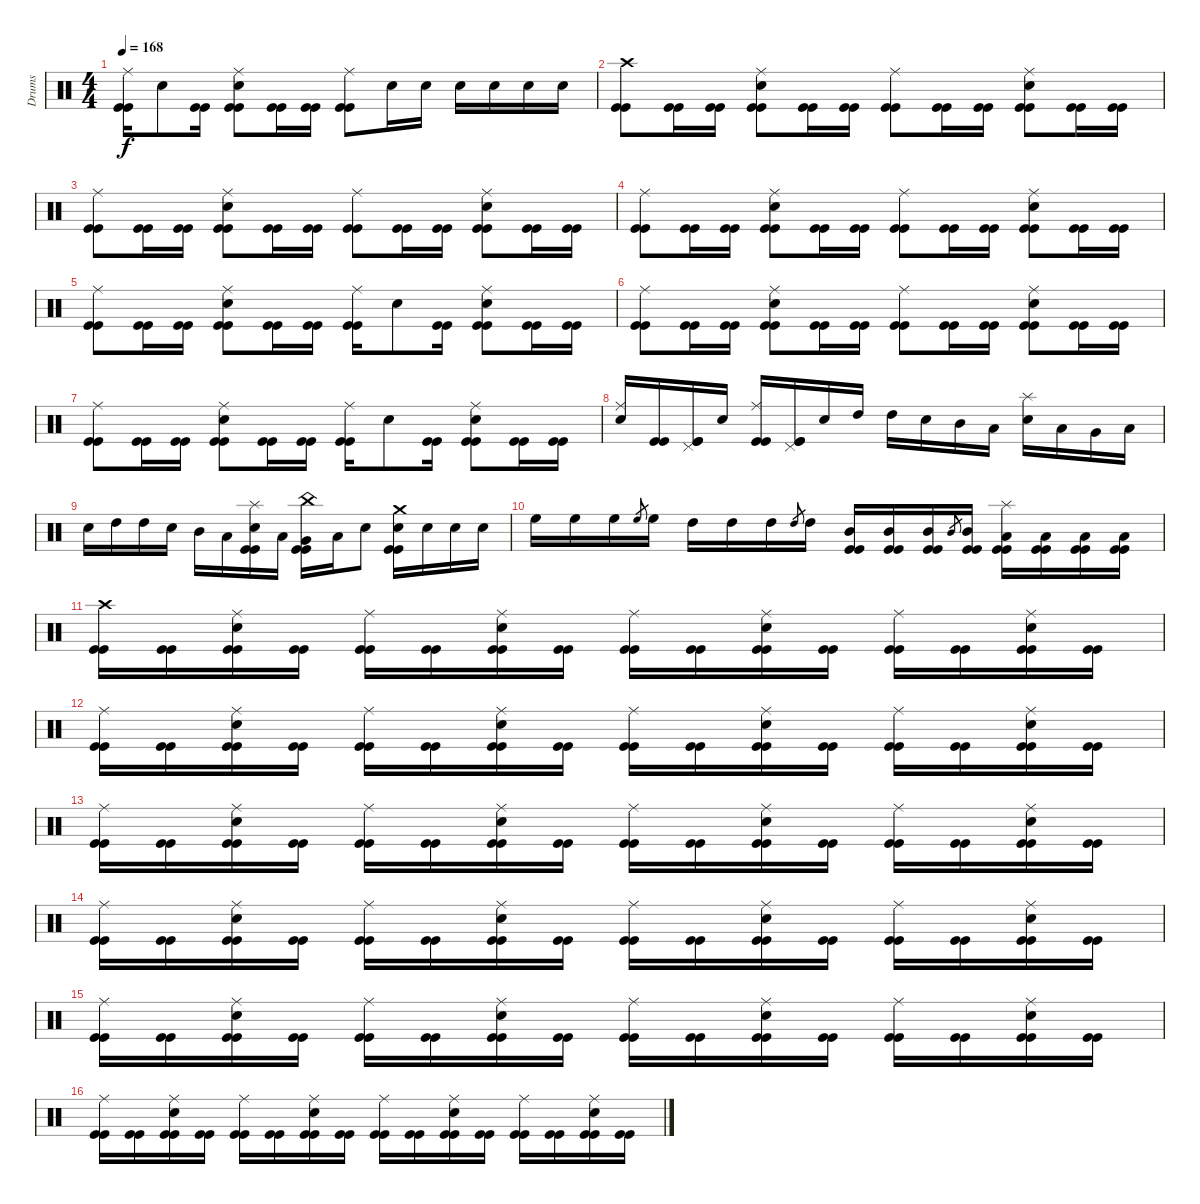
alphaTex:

\track ("Drums" "Drums") {instrument percussion}
\staff {score}
\articulation defaults
\ts (4 4)
\tempo 168
\clef neutral
\ks c
("Ride (middle)" "Kick (hit)" "Kick (hit)").16{dy f} "Electric Snare (hit)".8 ("Kick (hit)" "Kick (hit)").16 ("Ride (middle)" "Electric Snare (hit)" "Kick (hit)" "Kick (hit)").8 ("Kick (hit)" "Kick (hit)").16 ("Kick (hit)" "Kick (hit)").16 ("Ride (middle)" "Kick (hit)" "Kick (hit)").8 "Electric Snare (hit)".16 "Electric Snare (hit)".16 "Electric Snare (hit)".16 "Electric Snare (hit)".16 "Electric Snare (hit)".16 "Electric Snare (hit)".16 |
("Crash high (hit)" "Kick (hit)" "Kick (hit)").8 ("Kick (hit)" "Kick (hit)").16 ("Kick (hit)" "Kick (hit)").16 ("Ride (middle)" "Electric Snare (hit)" "Kick (hit)" "Kick (hit)").8 ("Kick (hit)" "Kick (hit)").16 ("Kick (hit)" "Kick (hit)").16 ("Ride (middle)" "Kick (hit)" "Kick (hit)").8 ("Kick (hit)" "Kick (hit)").16 ("Kick (hit)" "Kick (hit)").16 ("Ride (middle)" "Electric Snare (hit)" "Kick (hit)" "Kick (hit)").8 ("Kick (hit)" "Kick (hit)").16 ("Kick (hit)" "Kick (hit)").16 |
("Ride (middle)" "Kick (hit)" "Kick (hit)").8 ("Kick (hit)" "Kick (hit)").16 ("Kick (hit)" "Kick (hit)").16 ("Ride (middle)" "Electric Snare (hit)" "Kick (hit)" "Kick (hit)").8 ("Kick (hit)" "Kick (hit)").16 ("Kick (hit)" "Kick (hit)").16 ("Ride (middle)" "Kick (hit)" "Kick (hit)").8 ("Kick (hit)" "Kick (hit)").16 ("Kick (hit)" "Kick (hit)").16 ("Ride (middle)" "Electric Snare (hit)" "Kick (hit)" "Kick (hit)").8 ("Kick (hit)" "Kick (hit)").16 ("Kick (hit)" "Kick (hit)").16 |
("Ride (middle)" "Kick (hit)" "Kick (hit)").8 ("Kick (hit)" "Kick (hit)").16 ("Kick (hit)" "Kick (hit)").16 ("Ride (middle)" "Electric Snare (hit)" "Kick (hit)" "Kick (hit)").8 ("Kick (hit)" "Kick (hit)").16 ("Kick (hit)" "Kick (hit)").16 ("Ride (middle)" "Kick (hit)" "Kick (hit)").8 ("Kick (hit)" "Kick (hit)").16 ("Kick (hit)" "Kick (hit)").16 ("Ride (middle)" "Electric Snare (hit)" "Kick (hit)" "Kick (hit)").8 ("Kick (hit)" "Kick (hit)").16 ("Kick (hit)" "Kick (hit)").16 |
("Ride (middle)" "Kick (hit)" "Kick (hit)").8 ("Kick (hit)" "Kick (hit)").16 ("Kick (hit)" "Kick (hit)").16 ("Ride (middle)" "Electric Snare (hit)" "Kick (hit)" "Kick (hit)").8 ("Kick (hit)" "Kick (hit)").16 ("Kick (hit)" "Kick (hit)").16 ("Ride (middle)" "Kick (hit)" "Kick (hit)").16 "Electric Snare (hit)".8 ("Kick (hit)" "Kick (hit)").16 ("Ride (middle)" "Electric Snare (hit)" "Kick (hit)" "Kick (hit)").8 ("Kick (hit)" "Kick (hit)").16 ("Kick (hit)" "Kick (hit)").16 |
("Ride (middle)" "Kick (hit)" "Kick (hit)").8 ("Kick (hit)" "Kick (hit)").16 ("Kick (hit)" "Kick (hit)").16 ("Ride (middle)" "Electric Snare (hit)" "Kick (hit)" "Kick (hit)").8 ("Kick (hit)" "Kick (hit)").16 ("Kick (hit)" "Kick (hit)").16 ("Ride (middle)" "Kick (hit)" "Kick (hit)").8 ("Kick (hit)" "Kick (hit)").16 ("Kick (hit)" "Kick (hit)").16 ("Ride (middle)" "Electric Snare (hit)" "Kick (hit)" "Kick (hit)").8 ("Kick (hit)" "Kick (hit)").16 ("Kick (hit)" "Kick (hit)").16 |
("Ride (middle)" "Kick (hit)" "Kick (hit)").8 ("Kick (hit)" "Kick (hit)").16 ("Kick (hit)" "Kick (hit)").16 ("Ride (middle)" "Electric Snare (hit)" "Kick (hit)" "Kick (hit)").8 ("Kick (hit)" "Kick (hit)").16 ("Kick (hit)" "Kick (hit)").16 ("Ride (middle)" "Kick (hit)" "Kick (hit)").16 "Electric Snare (hit)".8 ("Kick (hit)" "Kick (hit)").16 ("Ride (middle)" "Electric Snare (hit)" "Kick (hit)" "Kick (hit)").8 ("Kick (hit)" "Kick (hit)").16 ("Kick (hit)" "Kick (hit)").16 |
("Ride (middle)" "Electric Snare (hit)").16 ("Kick (hit)" "Kick (hit)").16 ("Pedal Hi-Hat (hit)" "Kick (hit)" "Kick (hit)").16 "Electric Snare (hit)".16 ("Ride (middle)" "Kick (hit)" "Kick (hit)").16 ("Pedal Hi-Hat (hit)" "Kick (hit)" "Kick (hit)").16 "Electric Snare (hit)".16 "High Tom (hit)".16 "High Tom (hit)".16 "Electric Snare (hit)".16 "Mid Tom (hit)".16 "Low Tom (hit)".16 ("Splash (hit)" "Electric Snare (hit)").16 "Low Tom (hit)".16 "Very Low Tom (hit)".16 "Low Floor Tom (hit)".16 |
"Electric Snare (hit)".16 "High Tom (hit)".16 "High Tom (hit)".16 "Electric Snare (hit)".16 "Mid Tom (hit)".16 "Low Tom (hit)".16 ("Splash (hit)" "Electric Snare (hit)" "Kick (hit)" "Kick (hit)").16 "Low Tom (hit)".16 ("China (hit)" "Very Low Tom (hit)" "Kick (hit)" "Kick (hit)").16 "Low Floor Tom (hit)".16 "Electric Snare (hit)".8 ("Crash medium (hit)" "Electric Snare (hit)" "Kick (hit)" "Kick (hit)").16 "Electric Snare (hit)".16 "Electric Snare (hit)".16 "Electric Snare (hit)".16 |
"High Floor Tom (hit)".16 "High Floor Tom (hit)".16 "High Floor Tom (hit)".16 "High Floor Tom (hit)".8{gr} "High Floor Tom (hit)".16 "High Tom (hit)".16 "High Tom (hit)".16 "High Tom (hit)".16 "High Tom (hit)".8{gr} "High Tom (hit)".16 ("Mid Tom (hit)" "Kick (hit)" "Kick (hit)").16 ("Mid Tom (hit)" "Kick (hit)" "Kick (hit)").16 ("Mid Tom (hit)" "Kick (hit)" "Kick (hit)").16 "Mid Tom (hit)".8{gr} ("Mid Tom (hit)" "Kick (hit)" "Kick (hit)").16 ("Splash (hit)" "Low Tom (hit)" "Kick (hit)" "Kick (hit)").16 ("Low Tom (hit)" "Kick (hit)" "Kick (hit)").16 ("Low Tom (hit)" "Kick (hit)" "Kick (hit)").16 ("Low Tom (hit)" "Kick (hit)" "Kick (hit)").16 |
("Crash high (hit)" "Kick (hit)" "Kick (hit)").16 ("Kick (hit)" "Kick (hit)").16 ("Ride (middle)" "Electric Snare (hit)" "Kick (hit)" "Kick (hit)").16 ("Kick (hit)" "Kick (hit)").16 ("Ride (middle)" "Kick (hit)" "Kick (hit)").16 ("Kick (hit)" "Kick (hit)").16 ("Ride (middle)" "Electric Snare (hit)" "Kick (hit)" "Kick (hit)").16 ("Kick (hit)" "Kick (hit)").16 ("Ride (middle)" "Kick (hit)" "Kick (hit)").16 ("Kick (hit)" "Kick (hit)").16 ("Ride (middle)" "Electric Snare (hit)" "Kick (hit)" "Kick (hit)").16 ("Kick (hit)" "Kick (hit)").16 ("Ride (middle)" "Kick (hit)" "Kick (hit)").16 ("Kick (hit)" "Kick (hit)").16 ("Ride (middle)" "Electric Snare (hit)" "Kick (hit)" "Kick (hit)").16 ("Kick (hit)" "Kick (hit)").16 |
("Ride (middle)" "Kick (hit)" "Kick (hit)").16 ("Kick (hit)" "Kick (hit)").16 ("Ride (middle)" "Electric Snare (hit)" "Kick (hit)" "Kick (hit)").16 ("Kick (hit)" "Kick (hit)").16 ("Ride (middle)" "Kick (hit)" "Kick (hit)").16 ("Kick (hit)" "Kick (hit)").16 ("Ride (middle)" "Electric Snare (hit)" "Kick (hit)" "Kick (hit)").16 ("Kick (hit)" "Kick (hit)").16 ("Ride (middle)" "Kick (hit)" "Kick (hit)").16 ("Kick (hit)" "Kick (hit)").16 ("Ride (middle)" "Electric Snare (hit)" "Kick (hit)" "Kick (hit)").16 ("Kick (hit)" "Kick (hit)").16 ("Ride (middle)" "Kick (hit)" "Kick (hit)").16 ("Kick (hit)" "Kick (hit)").16 ("Ride (middle)" "Electric Snare (hit)" "Kick (hit)" "Kick (hit)").16 ("Kick (hit)" "Kick (hit)").16 |
("Ride (middle)" "Kick (hit)" "Kick (hit)").16 ("Kick (hit)" "Kick (hit)").16 ("Ride (middle)" "Electric Snare (hit)" "Kick (hit)" "Kick (hit)").16 ("Kick (hit)" "Kick (hit)").16 ("Ride (middle)" "Kick (hit)" "Kick (hit)").16 ("Kick (hit)" "Kick (hit)").16 ("Ride (middle)" "Electric Snare (hit)" "Kick (hit)" "Kick (hit)").16 ("Kick (hit)" "Kick (hit)").16 ("Ride (middle)" "Kick (hit)" "Kick (hit)").16 ("Kick (hit)" "Kick (hit)").16 ("Ride (middle)" "Electric Snare (hit)" "Kick (hit)" "Kick (hit)").16 ("Kick (hit)" "Kick (hit)").16 ("Ride (middle)" "Kick (hit)" "Kick (hit)").16 ("Kick (hit)" "Kick (hit)").16 ("Ride (middle)" "Electric Snare (hit)" "Kick (hit)" "Kick (hit)").16 ("Kick (hit)" "Kick (hit)").16 |
("Ride (middle)" "Kick (hit)" "Kick (hit)").16 ("Kick (hit)" "Kick (hit)").16 ("Ride (middle)" "Electric Snare (hit)" "Kick (hit)" "Kick (hit)").16 ("Kick (hit)" "Kick (hit)").16 ("Ride (middle)" "Kick (hit)" "Kick (hit)").16 ("Kick (hit)" "Kick (hit)").16 ("Ride (middle)" "Electric Snare (hit)" "Kick (hit)" "Kick (hit)").16 ("Kick (hit)" "Kick (hit)").16 ("Ride (middle)" "Kick (hit)" "Kick (hit)").16 ("Kick (hit)" "Kick (hit)").16 ("Ride (middle)" "Electric Snare (hit)" "Kick (hit)" "Kick (hit)").16 ("Kick (hit)" "Kick (hit)").16 ("Ride (middle)" "Kick (hit)" "Kick (hit)").16 ("Kick (hit)" "Kick (hit)").16 ("Ride (middle)" "Electric Snare (hit)" "Kick (hit)" "Kick (hit)").16 ("Kick (hit)" "Kick (hit)").16 |
("Ride (middle)" "Kick (hit)" "Kick (hit)").16 ("Kick (hit)" "Kick (hit)").16 ("Ride (middle)" "Electric Snare (hit)" "Kick (hit)" "Kick (hit)").16 ("Kick (hit)" "Kick (hit)").16 ("Ride (middle)" "Kick (hit)" "Kick (hit)").16 ("Kick (hit)" "Kick (hit)").16 ("Ride (middle)" "Electric Snare (hit)" "Kick (hit)" "Kick (hit)").16 ("Kick (hit)" "Kick (hit)").16 ("Ride (middle)" "Kick (hit)" "Kick (hit)").16 ("Kick (hit)" "Kick (hit)").16 ("Ride (middle)" "Electric Snare (hit)" "Kick (hit)" "Kick (hit)").16 ("Kick (hit)" "Kick (hit)").16 ("Ride (middle)" "Kick (hit)" "Kick (hit)").16 ("Kick (hit)" "Kick (hit)").16 ("Ride (middle)" "Electric Snare (hit)" "Kick (hit)" "Kick (hit)").16 ("Kick (hit)" "Kick (hit)").16 |
("Ride (middle)" "Kick (hit)" "Kick (hit)").16 ("Kick (hit)" "Kick (hit)").16 ("Ride (middle)" "Electric Snare (hit)" "Kick (hit)" "Kick (hit)").16 ("Kick (hit)" "Kick (hit)").16 ("Ride (middle)" "Kick (hit)" "Kick (hit)").16 ("Kick (hit)" "Kick (hit)").16 ("Ride (middle)" "Electric Snare (hit)" "Kick (hit)" "Kick (hit)").16 ("Kick (hit)" "Kick (hit)").16 ("Ride (middle)" "Kick (hit)" "Kick (hit)").16 ("Kick (hit)" "Kick (hit)").16 ("Ride (middle)" "Electric Snare (hit)" "Kick (hit)" "Kick (hit)").16 ("Kick (hit)" "Kick (hit)").16 ("Ride (middle)" "Kick (hit)" "Kick (hit)").16 ("Kick (hit)" "Kick (hit)").16 ("Ride (middle)" "Electric Snare (hit)" "Kick (hit)" "Kick (hit)").16 ("Kick (hit)" "Kick (hit)").16
